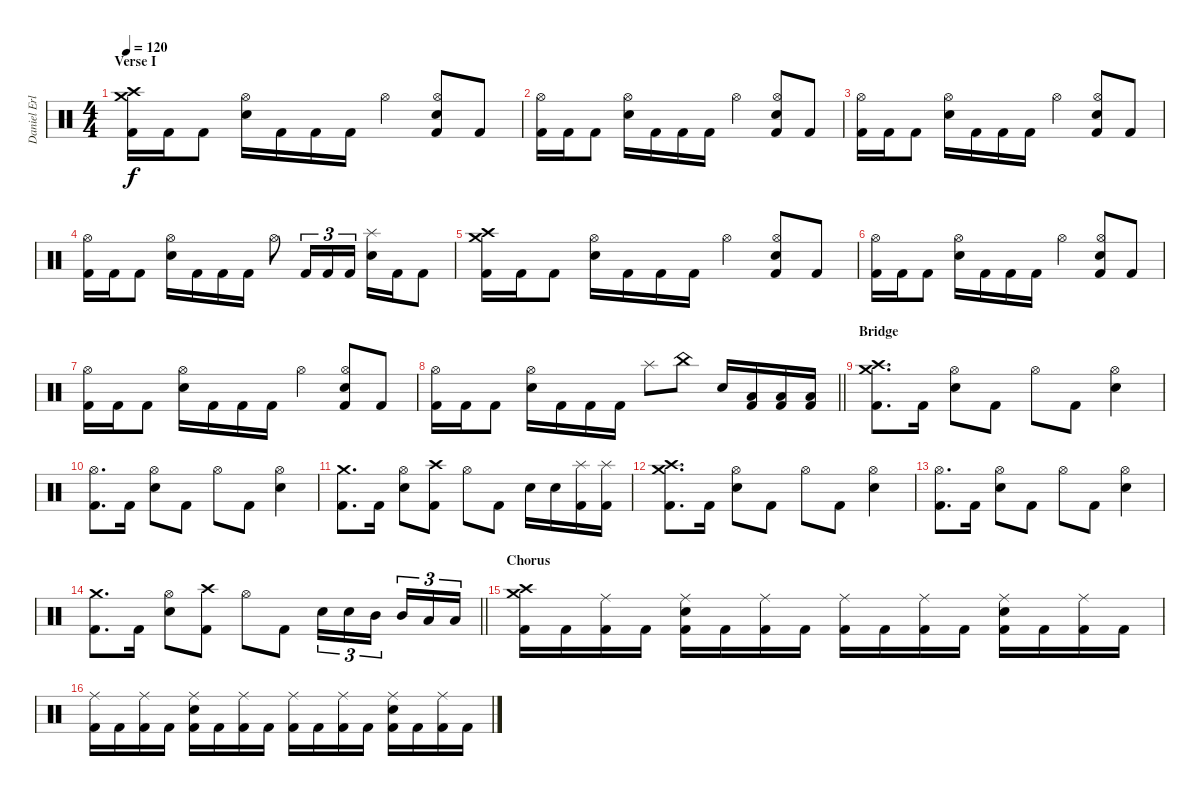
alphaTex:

\track ("Daniel Erlandson (Drums)" "Daniel Erl") {instrument percussion}
\staff {score}
\articulation defaults
\ts (4 4)
\section ("" "Verse I")
\tempo 120
\clef neutral
\ks c
("Crash medium (hit)" "Crash high (hit)" "Kick (hit) 2").16{dy f} "Kick (hit) 2".16 "Kick (hit) 2".8 ("Hi-Hat (open)" "Electric Snare (hit)").16 "Kick (hit) 2".16 "Kick (hit) 2".16 "Kick (hit) 2".16 "Hi-Hat (open)".4 ("Hi-Hat (open)" "Electric Snare (hit)" "Kick (hit) 2").8 "Kick (hit) 2".8 |
("Hi-Hat (open)" "Kick (hit) 2").16 "Kick (hit) 2".16 "Kick (hit) 2".8 ("Hi-Hat (open)" "Electric Snare (hit)").16 "Kick (hit) 2".16 "Kick (hit) 2".16 "Kick (hit) 2".16 "Hi-Hat (open)".4 ("Hi-Hat (open)" "Electric Snare (hit)" "Kick (hit) 2").8 "Kick (hit) 2".8 |
("Hi-Hat (open)" "Kick (hit) 2").16 "Kick (hit) 2".16 "Kick (hit) 2".8 ("Hi-Hat (open)" "Electric Snare (hit)").16 "Kick (hit) 2".16 "Kick (hit) 2".16 "Kick (hit) 2".16 "Hi-Hat (open)".4 ("Hi-Hat (open)" "Electric Snare (hit)" "Kick (hit) 2").8 "Kick (hit) 2".8 |
("Hi-Hat (open)" "Kick (hit) 2").16 "Kick (hit) 2".16 "Kick (hit) 2".8 ("Hi-Hat (open)" "Electric Snare (hit)").16 "Kick (hit) 2".16 "Kick (hit) 2".16 "Kick (hit) 2".16 "Hi-Hat (open)".8 "Kick (hit) 2".16{tu (3 2)} "Kick (hit) 2".16{tu (3 2)} "Kick (hit) 2".16{tu (3 2)} ("Splash (hit)" "Electric Snare (hit)").16 "Kick (hit) 2".16 "Kick (hit) 2".8 |
("Crash medium (hit)" "Crash high (hit)" "Kick (hit) 2").16 "Kick (hit) 2".16 "Kick (hit) 2".8 ("Hi-Hat (open)" "Electric Snare (hit)").16 "Kick (hit) 2".16 "Kick (hit) 2".16 "Kick (hit) 2".16 "Hi-Hat (open)".4 ("Hi-Hat (open)" "Electric Snare (hit)" "Kick (hit) 2").8 "Kick (hit) 2".8 |
("Hi-Hat (open)" "Kick (hit) 2").16 "Kick (hit) 2".16 "Kick (hit) 2".8 ("Hi-Hat (open)" "Electric Snare (hit)").16 "Kick (hit) 2".16 "Kick (hit) 2".16 "Kick (hit) 2".16 "Hi-Hat (open)".4 ("Hi-Hat (open)" "Electric Snare (hit)" "Kick (hit) 2").8 "Kick (hit) 2".8 |
("Hi-Hat (open)" "Kick (hit) 2").16 "Kick (hit) 2".16 "Kick (hit) 2".8 ("Hi-Hat (open)" "Electric Snare (hit)").16 "Kick (hit) 2".16 "Kick (hit) 2".16 "Kick (hit) 2".16 "Hi-Hat (open)".4 ("Hi-Hat (open)" "Electric Snare (hit)" "Kick (hit) 2").8 "Kick (hit) 2".8 |
\barLineRight lightlight
("Hi-Hat (open)" "Kick (hit) 2").16 "Kick (hit) 2".16 "Kick (hit) 2".8 ("Hi-Hat (open)" "Electric Snare (hit)").16 "Kick (hit) 2".16 "Kick (hit) 2".16 "Kick (hit) 2".16 "Splash (hit)".8 "China (hit)".8 "Electric Snare (hit)".16 ("Low Floor Tom (hit)" "Kick (hit) 2").16 ("Low Floor Tom (hit)" "Kick (hit) 2").16 ("Low Floor Tom (hit)" "Kick (hit) 2").16 |
\section ("" "Bridge")
("Crash medium (hit)" "Crash high (hit)" "Kick (hit) 2").8{d} "Kick (hit) 2".16 ("Hi-Hat (open)" "Electric Snare (hit)").8 "Kick (hit) 2".8 "Hi-Hat (open)".8 "Kick (hit) 2".8 ("Hi-Hat (open)" "Electric Snare (hit)").4 |
("Hi-Hat (open)" "Kick (hit) 2").8{d} "Kick (hit) 2".16 ("Hi-Hat (open)" "Electric Snare (hit)").8 "Kick (hit) 2".8 "Hi-Hat (open)".8 "Kick (hit) 2".8 ("Hi-Hat (open)" "Electric Snare (hit)").4 |
("Crash medium (hit)" "Kick (hit) 2").8{d} "Kick (hit) 2".16 ("Hi-Hat (open)" "Electric Snare (hit)").8 ("Crash high (hit)" "Kick (hit) 2").8 "Hi-Hat (open)".8 "Kick (hit) 2".8 "Electric Snare (hit)".16 "Electric Snare (hit)".16 ("Splash (hit)" "Kick (hit) 2").16 ("Splash (hit)" "Kick (hit) 2").16 |
("Crash medium (hit)" "Crash high (hit)" "Kick (hit) 2").8{d} "Kick (hit) 2".16 ("Hi-Hat (open)" "Electric Snare (hit)").8 "Kick (hit) 2".8 "Hi-Hat (open)".8 "Kick (hit) 2".8 ("Hi-Hat (open)" "Electric Snare (hit)").4 |
("Hi-Hat (open)" "Kick (hit) 2").8{d} "Kick (hit) 2".16 ("Hi-Hat (open)" "Electric Snare (hit)").8 "Kick (hit) 2".8 "Hi-Hat (open)".8 "Kick (hit) 2".8 ("Hi-Hat (open)" "Electric Snare (hit)").4 |
\barLineRight lightlight
("Crash medium (hit)" "Kick (hit) 2").8{d} "Kick (hit) 2".16 ("Hi-Hat (open)" "Electric Snare (hit)").8 ("Crash high (hit)" "Kick (hit) 2").8 "Hi-Hat (open)".8 "Kick (hit) 2".8 "Electric Snare (hit)".16{tu (3 2)} "Electric Snare (hit)".16{tu (3 2)} "Mid Tom (hit)".16{tu (3 2) beam splitsecondary} "Mid Tom (hit)".16{tu (3 2)} "Low Tom (hit)".16{tu (3 2)} "Low Tom (hit)".16{tu (3 2)} |
\section ("" "Chorus")
("Crash medium (hit)" "Crash high (hit)" "Kick (hit) 2").16 "Kick (hit) 2".16 ("Ride (middle)" "Kick (hit) 2").16 "Kick (hit) 2".16 ("Ride (middle)" "Electric Snare (hit)" "Kick (hit) 2").16 "Kick (hit) 2".16 ("Ride (middle)" "Kick (hit) 2").16 "Kick (hit) 2".16 ("Ride (middle)" "Kick (hit) 2").16 "Kick (hit) 2".16 ("Ride (middle)" "Kick (hit) 2").16 "Kick (hit) 2".16 ("Ride (middle)" "Electric Snare (hit)" "Kick (hit) 2").16 "Kick (hit) 2".16 ("Ride (middle)" "Kick (hit) 2").16 "Kick (hit) 2".16 |
("Ride (middle)" "Kick (hit) 2").16 "Kick (hit) 2".16 ("Ride (middle)" "Kick (hit) 2").16 "Kick (hit) 2".16 ("Ride (middle)" "Electric Snare (hit)" "Kick (hit) 2").16 "Kick (hit) 2".16 ("Ride (middle)" "Kick (hit) 2").16 "Kick (hit) 2".16 ("Ride (middle)" "Kick (hit) 2").16 "Kick (hit) 2".16 ("Ride (middle)" "Kick (hit) 2").16 "Kick (hit) 2".16 ("Ride (middle)" "Electric Snare (hit)" "Kick (hit) 2").16 "Kick (hit) 2".16 ("Ride (middle)" "Kick (hit) 2").16 "Kick (hit) 2".16
